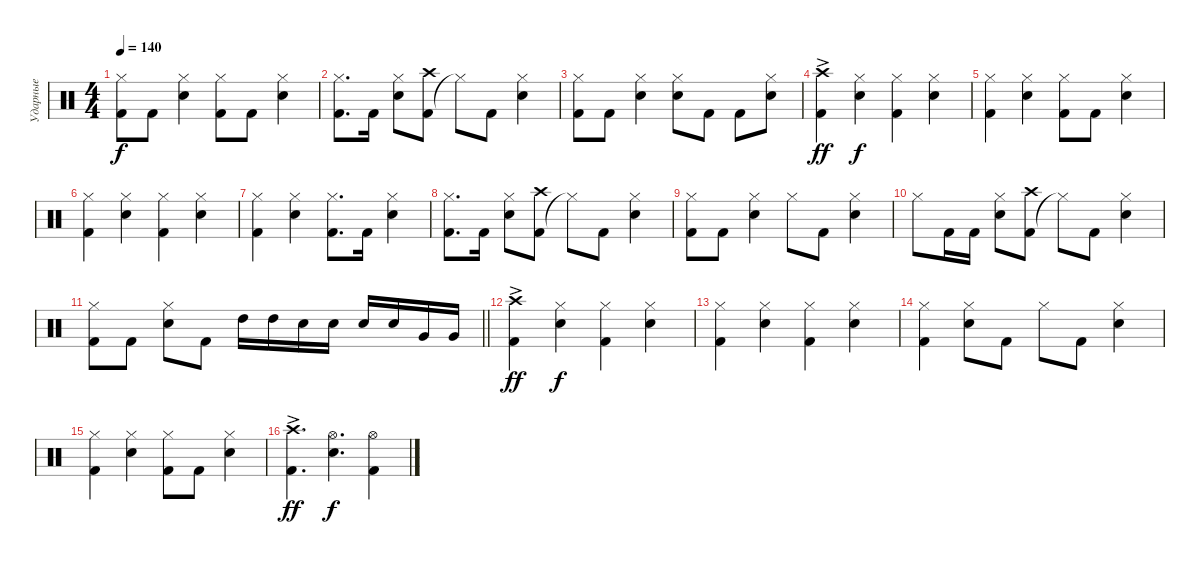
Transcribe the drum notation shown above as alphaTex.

\track ("Ударные" "Ударные") {instrument percussion}
\staff {score}
\articulation defaults
\ts (4 4)
\tempo 140
\clef neutral
\ks c
("Kick (hit) 2" "Hi-Hat (closed)").8{dy f} "Kick (hit) 2".8 ("Snare (hit) 2" "Hi-Hat (closed)").4 ("Kick (hit) 2" "Hi-Hat (closed)").8 "Kick (hit) 2".8 ("Snare (hit) 2" "Hi-Hat (closed)").4 |
("Kick (hit) 2" "Hi-Hat (closed)").8{d} "Kick (hit) 2".16 ("Snare (hit) 2" "Hi-Hat (closed)").8 ("Kick (hit) 2" "Crash high (hit)").8 "Hi-Hat (closed)"{t}.8 "Kick (hit) 2".8 ("Snare (hit) 2" "Hi-Hat (closed)").4 |
("Kick (hit) 2" "Hi-Hat (closed)").8 "Kick (hit) 2".8 ("Snare (hit) 2" "Hi-Hat (closed)").4 ("Snare (hit) 2" "Hi-Hat (closed)").8 "Kick (hit) 2".8 "Kick (hit) 2".8 ("Snare (hit) 2" "Hi-Hat (closed)").8 |
("Kick (hit) 2" "Crash high (hit)"{ac}).4{dy ff} ("Snare (hit) 2" "Hi-Hat (closed)").4{dy f} ("Kick (hit) 2" "Hi-Hat (closed)").4 ("Snare (hit) 2" "Hi-Hat (closed)").4 |
("Kick (hit) 2" "Hi-Hat (closed)").4 ("Snare (hit) 2" "Hi-Hat (closed)").4 ("Kick (hit) 2" "Hi-Hat (closed)").8 "Kick (hit) 2".8 ("Snare (hit) 2" "Hi-Hat (closed)").4 |
("Kick (hit) 2" "Hi-Hat (closed)").4 ("Snare (hit) 2" "Hi-Hat (closed)").4 ("Kick (hit) 2" "Hi-Hat (closed)").4 ("Snare (hit) 2" "Hi-Hat (closed)").4 |
("Kick (hit) 2" "Hi-Hat (closed)").4 ("Snare (hit) 2" "Hi-Hat (closed)").4 ("Kick (hit) 2" "Hi-Hat (closed)").8{d} "Kick (hit) 2".16 ("Snare (hit) 2" "Hi-Hat (closed)").4 |
("Kick (hit) 2" "Hi-Hat (closed)").8{d} "Kick (hit) 2".16 ("Snare (hit) 2" "Hi-Hat (closed)").8 ("Kick (hit) 2" "Crash high (hit)").8 "Hi-Hat (closed)"{t}.8 "Kick (hit) 2".8 ("Snare (hit) 2" "Hi-Hat (closed)").4 |
("Kick (hit) 2" "Hi-Hat (closed)").8 "Kick (hit) 2".8 ("Snare (hit) 2" "Hi-Hat (closed)").4 "Hi-Hat (closed)".8 "Kick (hit) 2".8 ("Snare (hit) 2" "Hi-Hat (closed)").4 |
"Hi-Hat (closed)".8 "Kick (hit) 2".16 "Kick (hit) 2".16 ("Snare (hit) 2" "Hi-Hat (closed)").8 ("Kick (hit) 2" "Crash high (hit)").8 "Hi-Hat (closed)"{t}.8 "Kick (hit) 2".8 ("Snare (hit) 2" "Hi-Hat (closed)").4 |
\barLineRight lightlight
("Kick (hit) 2" "Hi-Hat (closed)").8 "Kick (hit) 2".8 ("Snare (hit) 2" "Hi-Hat (closed)").8 "Kick (hit) 2".8 "High Tom (hit)".16 "High Tom (hit)".16 "Snare (hit) 2".16 "Snare (hit) 2".16 "Snare (hit) 2".16 "Snare (hit) 2".16 "Very Low Tom (hit)".16 "Very Low Tom (hit)".16 |
("Kick (hit) 2" "Crash high (hit)"{ac}).4{dy ff} ("Snare (hit) 2" "Hi-Hat (closed)").4{dy f} ("Kick (hit) 2" "Hi-Hat (closed)").4 ("Snare (hit) 2" "Hi-Hat (closed)").4 |
("Kick (hit) 2" "Hi-Hat (closed)").4 ("Snare (hit) 2" "Hi-Hat (closed)").4 ("Kick (hit) 2" "Hi-Hat (closed)").4 ("Snare (hit) 2" "Hi-Hat (closed)").4 |
("Kick (hit) 2" "Hi-Hat (closed)").4 ("Snare (hit) 2" "Hi-Hat (closed)").8 "Kick (hit) 2".8 "Hi-Hat (closed)".8 "Kick (hit) 2".8 ("Snare (hit) 2" "Hi-Hat (closed)").4 |
("Kick (hit) 2" "Hi-Hat (closed)").4 ("Snare (hit) 2" "Hi-Hat (closed)").4 ("Kick (hit) 2" "Hi-Hat (closed)").8 "Kick (hit) 2".8 ("Snare (hit) 2" "Hi-Hat (closed)").4 |
("Kick (hit) 2" "Crash high (hit)"{ac}).4{d dy ff} ("Snare (hit) 2" "Hi-Hat (open)").4{d dy f} ("Kick (hit) 2" "Hi-Hat (open)").4
